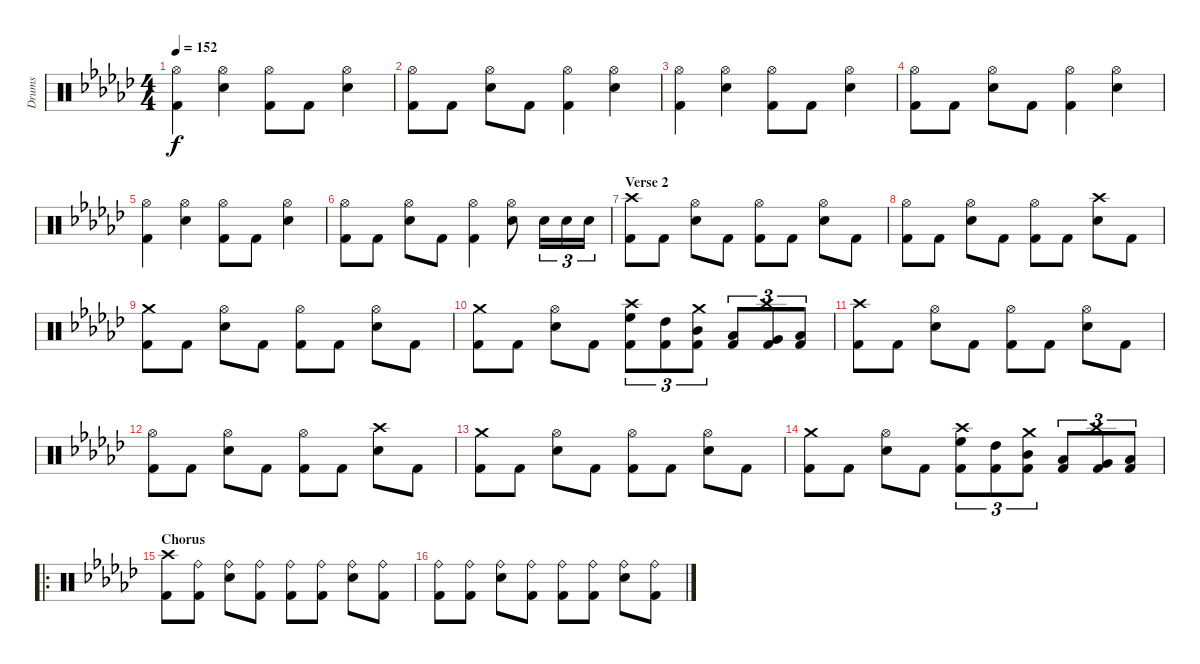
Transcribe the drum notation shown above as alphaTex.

\track ("Drums" "Drums") {instrument percussion}
\staff {score}
\articulation defaults
\ts (4 4)
\tempo 152
\clef neutral
\ks gb
("Hi-Hat (open)" "Kick (hit) 2").4{dy f} ("Hi-Hat (open)" "Electric Snare (hit)").4 ("Hi-Hat (open)" "Kick (hit) 2").8 "Kick (hit) 2".8 ("Hi-Hat (open)" "Electric Snare (hit)").4 |
("Hi-Hat (open)" "Kick (hit) 2").8 "Kick (hit) 2".8 ("Hi-Hat (open)" "Electric Snare (hit)").8 "Kick (hit) 2".8 ("Hi-Hat (open)" "Kick (hit) 2").4 ("Hi-Hat (open)" "Electric Snare (hit)").4 |
("Hi-Hat (open)" "Kick (hit) 2").4 ("Hi-Hat (open)" "Electric Snare (hit)").4 ("Hi-Hat (open)" "Kick (hit) 2").8 "Kick (hit) 2".8 ("Hi-Hat (open)" "Electric Snare (hit)").4 |
("Hi-Hat (open)" "Kick (hit) 2").8 "Kick (hit) 2".8 ("Hi-Hat (open)" "Electric Snare (hit)").8 "Kick (hit) 2".8 ("Hi-Hat (open)" "Kick (hit) 2").4 ("Hi-Hat (open)" "Electric Snare (hit)").4 |
("Hi-Hat (open)" "Kick (hit) 2").4 ("Hi-Hat (open)" "Electric Snare (hit)").4 ("Hi-Hat (open)" "Kick (hit) 2").8 "Kick (hit) 2".8 ("Hi-Hat (open)" "Electric Snare (hit)").4 |
("Hi-Hat (open)" "Kick (hit) 2").8 "Kick (hit) 2".8 ("Hi-Hat (open)" "Electric Snare (hit)").8 "Kick (hit) 2".8 ("Hi-Hat (open)" "Kick (hit) 2").4 ("Hi-Hat (open)" "Electric Snare (hit)").8 "Electric Snare (hit)".16{tu (3 2)} "Electric Snare (hit)".16{tu (3 2)} "Electric Snare (hit)".16{tu (3 2)} |
\section ("" "Verse 2")
("Crash high (hit)" "Kick (hit) 2").8 "Kick (hit) 2".8 ("Hi-Hat (open)" "Electric Snare (hit)").8 "Kick (hit) 2".8 ("Hi-Hat (open)" "Kick (hit) 2").8 "Kick (hit) 2".8 ("Hi-Hat (open)" "Electric Snare (hit)").8 "Kick (hit) 2".8 |
("Hi-Hat (open)" "Kick (hit) 2").8 "Kick (hit) 2".8 ("Hi-Hat (open)" "Electric Snare (hit)").8 "Kick (hit) 2".8 ("Hi-Hat (open)" "Kick (hit) 2").8 "Kick (hit) 2".8 ("Crash high (hit)" "Electric Snare (hit)").8 "Kick (hit) 2".8 |
("Crash medium (hit)" "Kick (hit) 2").8 "Kick (hit) 2".8 ("Hi-Hat (open)" "Electric Snare (hit)").8 "Kick (hit) 2".8 ("Hi-Hat (open)" "Kick (hit) 2").8 "Kick (hit) 2".8 ("Hi-Hat (open)" "Electric Snare (hit)").8 "Kick (hit) 2".8 |
("Crash medium (hit)" "Kick (hit) 2").8 "Kick (hit) 2".8 ("Hi-Hat (open)" "Electric Snare (hit)").8 "Kick (hit) 2".8 ("Crash high (hit)" "High Floor Tom (hit)" "Kick (hit) 2").8{tu (3 2)} ("High Tom (hit)" "Kick (hit) 2").8{tu (3 2)} ("Crash medium (hit)" "Mid Tom (hit)" "Kick (hit) 2").8{tu (3 2)} ("Low Tom (hit)" "Kick (hit) 2").8{tu (3 2)} ("Crash high (hit)" "Very Low Tom (hit)" "Kick (hit) 2").8{tu (3 2)} ("Low Floor Tom (hit)" "Kick (hit) 2").8{tu (3 2)} |
("Crash high (hit)" "Kick (hit) 2").8 "Kick (hit) 2".8 ("Hi-Hat (open)" "Electric Snare (hit)").8 "Kick (hit) 2".8 ("Hi-Hat (open)" "Kick (hit) 2").8 "Kick (hit) 2".8 ("Hi-Hat (open)" "Electric Snare (hit)").8 "Kick (hit) 2".8 |
("Hi-Hat (open)" "Kick (hit) 2").8 "Kick (hit) 2".8 ("Hi-Hat (open)" "Electric Snare (hit)").8 "Kick (hit) 2".8 ("Hi-Hat (open)" "Kick (hit) 2").8 "Kick (hit) 2".8 ("Crash high (hit)" "Electric Snare (hit)").8 "Kick (hit) 2".8 |
("Crash medium (hit)" "Kick (hit) 2").8 "Kick (hit) 2".8 ("Hi-Hat (open)" "Electric Snare (hit)").8 "Kick (hit) 2".8 ("Hi-Hat (open)" "Kick (hit) 2").8 "Kick (hit) 2".8 ("Hi-Hat (open)" "Electric Snare (hit)").8 "Kick (hit) 2".8 |
("Crash medium (hit)" "Kick (hit) 2").8 "Kick (hit) 2".8 ("Hi-Hat (open)" "Electric Snare (hit)").8 "Kick (hit) 2".8 ("Crash high (hit)" "High Floor Tom (hit)" "Kick (hit) 2").8{tu (3 2)} ("High Tom (hit)" "Kick (hit) 2").8{tu (3 2)} ("Crash medium (hit)" "Mid Tom (hit)" "Kick (hit) 2").8{tu (3 2)} ("Low Tom (hit)" "Kick (hit) 2").8{tu (3 2)} ("Crash high (hit)" "Very Low Tom (hit)" "Kick (hit) 2").8{tu (3 2)} ("Low Floor Tom (hit)" "Kick (hit) 2").8{tu (3 2)} |
\ro
\section ("" "Chorus")
("Crash high (hit)" "Kick (hit) 2").8 ("Ride (bell)" "Kick (hit) 2").8 ("Ride (bell)" "Electric Snare (hit)").8 ("Ride (bell)" "Kick (hit) 2").8 ("Ride (bell)" "Kick (hit) 2").8 ("Ride (bell)" "Kick (hit) 2").8 ("Ride (bell)" "Electric Snare (hit)").8 ("Ride (bell)" "Kick (hit) 2").8 |
("Ride (bell)" "Kick (hit) 2").8 ("Ride (bell)" "Kick (hit) 2").8 ("Ride (bell)" "Electric Snare (hit)").8 ("Ride (bell)" "Kick (hit) 2").8 ("Ride (bell)" "Kick (hit) 2").8 ("Ride (bell)" "Kick (hit) 2").8 ("Ride (bell)" "Electric Snare (hit)").8 ("Ride (bell)" "Kick (hit) 2").8
